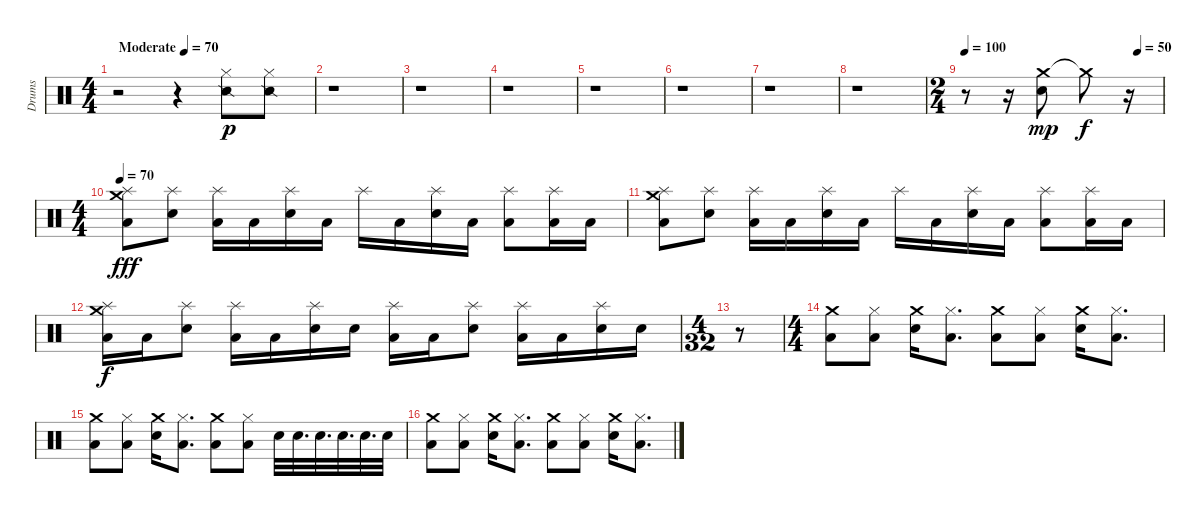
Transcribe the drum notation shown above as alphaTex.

\track ("Drums" "Drums") {instrument percussion}
\staff {score}
\articulation defaults
\ts (4 4)
\tempo (70 "Moderate")
\clef neutral
\ks c
r.2{dy p} r.4 ("Hi-Hat (closed)" "Snare (side stick) 2").8 ("Hi-Hat (closed)" "Snare (side stick) 2").8 |
r.1 |
r.1 |
r.1 |
r.1 |
r.1 |
r.1 |
r.1 |
\ts (2 4)
\tempo 100
\tempo (50 0.875)
r.8 r.16 ("Crash medium (hit)" "Snare (hit) 2").8{dy mp} "Crash medium (hit)"{t}.8{dy f} r.16 |
\ts (4 4)
\tempo 70
("Crash medium (hit)" "Splash (hit)" "Low Floor Tom (hit)").8{dy fff} ("Splash (hit)" "Electric Snare (hit)").8 ("Splash (hit)" "Low Floor Tom (hit)").16 "Low Floor Tom (hit)".16 ("Splash (hit)" "Electric Snare (hit)").16 "Low Floor Tom (hit)".16 "Splash (hit)".16 "Low Floor Tom (hit)".16 ("Splash (hit)" "Electric Snare (hit)").16 "Low Floor Tom (hit)".16 ("Splash (hit)" "Low Floor Tom (hit)").8 ("Splash (hit)" "Low Floor Tom (hit)").16 "Low Floor Tom (hit)".16 |
("Crash medium (hit)" "Splash (hit)" "Low Floor Tom (hit)").8 ("Splash (hit)" "Electric Snare (hit)").8 ("Splash (hit)" "Low Floor Tom (hit)").16 "Low Floor Tom (hit)".16 ("Splash (hit)" "Electric Snare (hit)").16 "Low Floor Tom (hit)".16 "Splash (hit)".16 "Low Floor Tom (hit)".16 ("Splash (hit)" "Electric Snare (hit)").16 "Low Floor Tom (hit)".16 ("Splash (hit)" "Low Floor Tom (hit)").8 ("Splash (hit)" "Low Floor Tom (hit)").16 "Low Floor Tom (hit)".16 |
("Crash medium (hit)" "Splash (hit)" "Low Floor Tom (hit)").16{dy f} "Low Floor Tom (hit)".16 ("Splash (hit)" "Electric Snare (hit)").8 ("Splash (hit)" "Low Floor Tom (hit)").16 "Low Floor Tom (hit)".16 ("Splash (hit)" "Electric Snare (hit)").16 "Electric Snare (hit)".16 ("Splash (hit)" "Low Floor Tom (hit)").16 "Low Floor Tom (hit)".16 ("Splash (hit)" "Electric Snare (hit)").8 ("Splash (hit)" "Low Floor Tom (hit)").16 "Low Floor Tom (hit)".16 ("Splash (hit)" "Electric Snare (hit)").16 "Electric Snare (hit)".16 |
\ts (4 32)
r.8 |
\ts (4 4)
("Crash medium (hit)" "Low Floor Tom (hit)").8 ("Hi-Hat (closed)" "Low Floor Tom (hit)").8 ("Crash medium (hit)" "Electric Snare (hit)").16 ("Hi-Hat (closed)" "Low Floor Tom (hit)").8{d} ("Crash medium (hit)" "Low Floor Tom (hit)").8 ("Hi-Hat (closed)" "Low Floor Tom (hit)").8 ("Crash medium (hit)" "Electric Snare (hit)").16 ("Hi-Hat (closed)" "Low Floor Tom (hit)").8{d} |
("Crash medium (hit)" "Low Floor Tom (hit)").8 ("Hi-Hat (closed)" "Low Floor Tom (hit)").8 ("Crash medium (hit)" "Electric Snare (hit)").16 ("Hi-Hat (closed)" "Low Floor Tom (hit)").8{d} ("Crash medium (hit)" "Low Floor Tom (hit)").8 ("Hi-Hat (closed)" "Low Floor Tom (hit)").8 "Electric Snare (hit)".32 "Electric Snare (hit)".32{d} "Electric Snare (hit)".32{d} "Electric Snare (hit)".32{d} "Electric Snare (hit)".32{d} "Electric Snare (hit)".32 |
("Crash medium (hit)" "Low Floor Tom (hit)").8 ("Hi-Hat (closed)" "Low Floor Tom (hit)").8 ("Crash medium (hit)" "Electric Snare (hit)").16 ("Hi-Hat (closed)" "Low Floor Tom (hit)").8{d} ("Crash medium (hit)" "Low Floor Tom (hit)").8 ("Hi-Hat (closed)" "Low Floor Tom (hit)").8 ("Crash medium (hit)" "Electric Snare (hit)").16 ("Hi-Hat (closed)" "Low Floor Tom (hit)").8{d}
